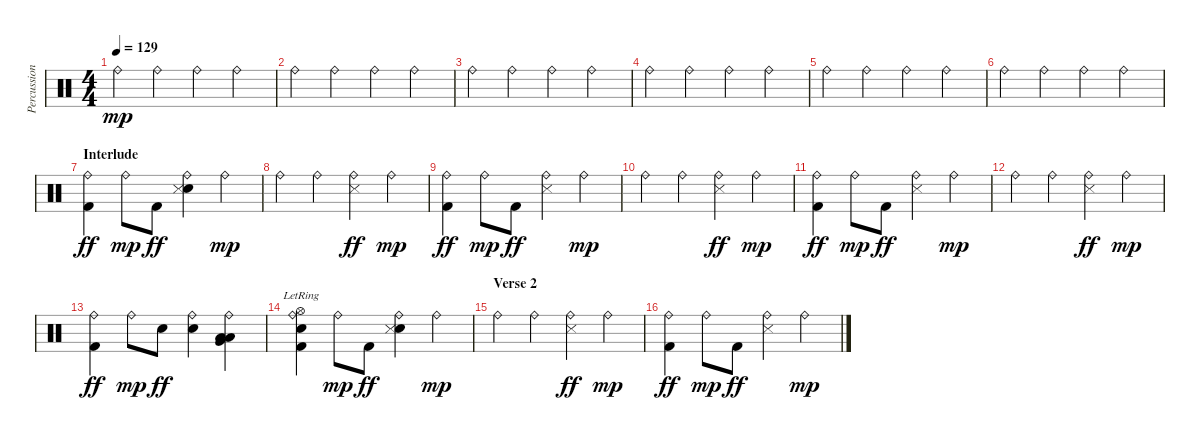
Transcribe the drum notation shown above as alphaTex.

\track ("Percussion" "Percussion") {instrument percussion}
\staff {score}
\articulation defaults
\ts (4 4)
\tempo 129
\clef neutral
\ks c "Ride (bell)".4{dy mp} "Ride (bell)".4 "Ride (bell)".4 "Ride (bell)".4
|
"Ride (bell)".4 "Ride (bell)".4 "Ride (bell)".4 "Ride (bell)".4 |
"Ride (bell)".4 "Ride (bell)".4 "Ride (bell)".4 "Ride (bell)".4 |
"Ride (bell)".4 "Ride (bell)".4 "Ride (bell)".4 "Ride (bell)".4 |
"Ride (bell)".4 "Ride (bell)".4 "Ride (bell)".4 "Ride (bell)".4 |
"Ride (bell)".4 "Ride (bell)".4 "Ride (bell)".4 "Ride (bell)".4 |
\section ("" "Interlude")
("Ride (bell)" "Kick (hit) 2").4{dy ff} "Ride (bell)".8{dy mp} "Kick (hit) 2".8{dy ff} ("Ride (bell)" "Electric Snare (hit)" "Snare (side stick) 3").4 "Ride (bell)".4{dy mp} |
"Ride (bell)".4 "Ride (bell)".4 ("Ride (bell)" "Snare (side stick) 3").4{dy ff} "Ride (bell)".4{dy mp} |
("Ride (bell)" "Kick (hit) 2").4{dy ff} "Ride (bell)".8{dy mp} "Kick (hit) 2".8{dy ff} ("Ride (bell)" "Snare (side stick) 3").4 "Ride (bell)".4{dy mp} |
"Ride (bell)".4 "Ride (bell)".4 ("Ride (bell)" "Snare (side stick) 3").4{dy ff} "Ride (bell)".4{dy mp} |
("Ride (bell)" "Kick (hit) 2").4{dy ff} "Ride (bell)".8{dy mp} "Kick (hit) 2".8{dy ff} ("Ride (bell)" "Snare (side stick) 3").4 "Ride (bell)".4{dy mp} |
"Ride (bell)".4 "Ride (bell)".4 ("Ride (bell)" "Snare (side stick) 3").4{dy ff} "Ride (bell)".4{dy mp} |
("Ride (bell)" "Kick (hit) 2").4{dy ff} "Ride (bell)".8{dy mp} "Electric Snare (hit)".8{dy ff} ("Ride (bell)" "Electric Snare (hit)").4 ("Ride (bell)" "Low Floor Tom (hit)" "Very Low Tom (hit)" "Low Floor Tom (hit)").4{bu 120} |
("Ride (bell)" "Hi-Hat (open)"{lr} "Electric Snare (hit)" "Kick (hit) 2").4 "Ride (bell)".8{dy mp} "Kick (hit) 2".8{dy ff} ("Ride (bell)" "Electric Snare (hit)" "Snare (side stick) 3").4 "Ride (bell)".4{dy mp} |
\section ("" "Verse 2")
"Ride (bell)".4 "Ride (bell)".4 ("Ride (bell)" "Snare (side stick) 3").4{dy ff} "Ride (bell)".4{dy mp} |
("Ride (bell)" "Kick (hit) 2").4{dy ff} "Ride (bell)".8{dy mp} "Kick (hit) 2".8{dy ff} ("Ride (bell)" "Snare (side stick) 3").4 "Ride (bell)".4{dy mp}
